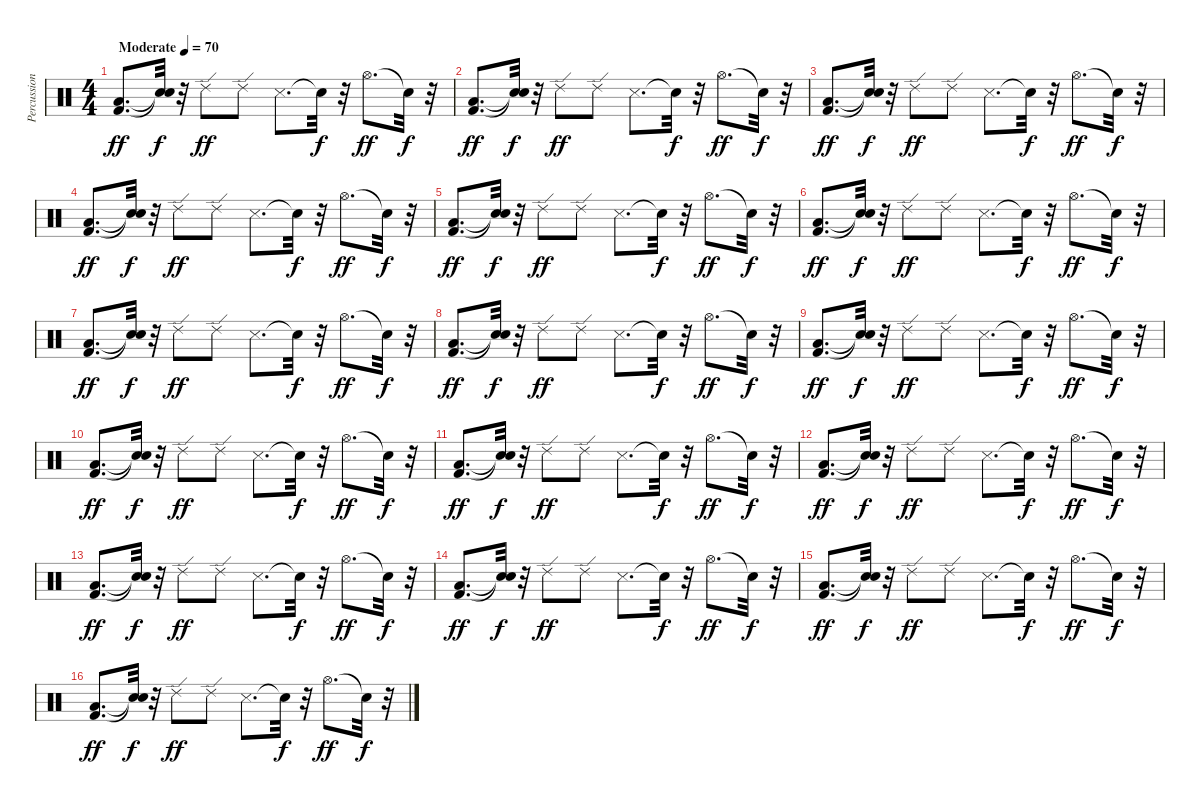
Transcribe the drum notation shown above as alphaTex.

\track ("Percussions2" "Percussion") {instrument percussion}
\staff {score}
\articulation defaults
\ts (4 4)
\tempo (70 "Moderate")
\clef neutral
\ks c
("Kick (hit) 2" "Low Floor Tom (hit)").8{d dy ff} ("Snare (hit)"{t} "Snare (hit)"{t}).32{dy f} r.32 "Ride (edge) 2".8{dy ff} "Ride (edge) 2".8 "Snare (side stick) 3".8{d} "Snare (hit)"{t}.32{dy f} r.32 "Hi-Hat (open)".8{d dy ff} "Snare (hit)"{t}.32{dy f} r.32 |
("Kick (hit) 2" "Low Floor Tom (hit)").8{d dy ff} ("Snare (hit)"{t} "Snare (hit)"{t}).32{dy f} r.32 "Ride (edge) 2".8{dy ff} "Ride (edge) 2".8 "Snare (side stick) 3".8{d} "Snare (hit)"{t}.32{dy f} r.32 "Hi-Hat (open)".8{d dy ff} "Snare (hit)"{t}.32{dy f} r.32 |
("Kick (hit) 2" "Low Floor Tom (hit)").8{d dy ff} ("Snare (hit)"{t} "Snare (hit)"{t}).32{dy f} r.32 "Ride (edge) 2".8{dy ff} "Ride (edge) 2".8 "Snare (side stick) 3".8{d} "Snare (hit)"{t}.32{dy f} r.32 "Hi-Hat (open)".8{d dy ff} "Snare (hit)"{t}.32{dy f} r.32 |
("Kick (hit) 2" "Low Floor Tom (hit)").8{d dy ff} ("Snare (hit)"{t} "Snare (hit)"{t}).32{dy f} r.32 "Ride (edge) 2".8{dy ff} "Ride (edge) 2".8 "Snare (side stick) 3".8{d} "Snare (hit)"{t}.32{dy f} r.32 "Hi-Hat (open)".8{d dy ff} "Snare (hit)"{t}.32{dy f} r.32 |
("Kick (hit) 2" "Low Floor Tom (hit)").8{d dy ff} ("Snare (hit)"{t} "Snare (hit)"{t}).32{dy f} r.32 "Ride (edge) 2".8{dy ff} "Ride (edge) 2".8 "Snare (side stick) 3".8{d} "Snare (hit)"{t}.32{dy f} r.32 "Hi-Hat (open)".8{d dy ff} "Snare (hit)"{t}.32{dy f} r.32 |
("Kick (hit) 2" "Low Floor Tom (hit)").8{d dy ff} ("Snare (hit)"{t} "Snare (hit)"{t}).32{dy f} r.32 "Ride (edge) 2".8{dy ff} "Ride (edge) 2".8 "Snare (side stick) 3".8{d} "Snare (hit)"{t}.32{dy f} r.32 "Hi-Hat (open)".8{d dy ff} "Snare (hit)"{t}.32{dy f} r.32 |
("Kick (hit) 2" "Low Floor Tom (hit)").8{d dy ff} ("Snare (hit)"{t} "Snare (hit)"{t}).32{dy f} r.32 "Ride (edge) 2".8{dy ff} "Ride (edge) 2".8 "Snare (side stick) 3".8{d} "Snare (hit)"{t}.32{dy f} r.32 "Hi-Hat (open)".8{d dy ff} "Snare (hit)"{t}.32{dy f} r.32 |
("Kick (hit) 2" "Low Floor Tom (hit)").8{d dy ff} ("Snare (hit)"{t} "Snare (hit)"{t}).32{dy f} r.32 "Ride (edge) 2".8{dy ff} "Ride (edge) 2".8 "Snare (side stick) 3".8{d} "Snare (hit)"{t}.32{dy f} r.32 "Hi-Hat (open)".8{d dy ff} "Snare (hit)"{t}.32{dy f} r.32 |
("Kick (hit) 2" "Low Floor Tom (hit)").8{d dy ff} ("Snare (hit)"{t} "Snare (hit)"{t}).32{dy f} r.32 "Ride (edge) 2".8{dy ff} "Ride (edge) 2".8 "Snare (side stick) 3".8{d} "Snare (hit)"{t}.32{dy f} r.32 "Hi-Hat (open)".8{d dy ff} "Snare (hit)"{t}.32{dy f} r.32 |
("Kick (hit) 2" "Low Floor Tom (hit)").8{d dy ff} ("Snare (hit)"{t} "Snare (hit)"{t}).32{dy f} r.32 "Ride (edge) 2".8{dy ff} "Ride (edge) 2".8 "Snare (side stick) 3".8{d} "Snare (hit)"{t}.32{dy f} r.32 "Hi-Hat (open)".8{d dy ff} "Snare (hit)"{t}.32{dy f} r.32 |
("Kick (hit) 2" "Low Floor Tom (hit)").8{d dy ff} ("Snare (hit)"{t} "Snare (hit)"{t}).32{dy f} r.32 "Ride (edge) 2".8{dy ff} "Ride (edge) 2".8 "Snare (side stick) 3".8{d} "Snare (hit)"{t}.32{dy f} r.32 "Hi-Hat (open)".8{d dy ff} "Snare (hit)"{t}.32{dy f} r.32 |
("Kick (hit) 2" "Low Floor Tom (hit)").8{d dy ff} ("Snare (hit)"{t} "Snare (hit)"{t}).32{dy f} r.32 "Ride (edge) 2".8{dy ff} "Ride (edge) 2".8 "Snare (side stick) 3".8{d} "Snare (hit)"{t}.32{dy f} r.32 "Hi-Hat (open)".8{d dy ff} "Snare (hit)"{t}.32{dy f} r.32 |
("Kick (hit) 2" "Low Floor Tom (hit)").8{d dy ff} ("Snare (hit)"{t} "Snare (hit)"{t}).32{dy f} r.32 "Ride (edge) 2".8{dy ff} "Ride (edge) 2".8 "Snare (side stick) 3".8{d} "Snare (hit)"{t}.32{dy f} r.32 "Hi-Hat (open)".8{d dy ff} "Snare (hit)"{t}.32{dy f} r.32 |
("Kick (hit) 2" "Low Floor Tom (hit)").8{d dy ff} ("Snare (hit)"{t} "Snare (hit)"{t}).32{dy f} r.32 "Ride (edge) 2".8{dy ff} "Ride (edge) 2".8 "Snare (side stick) 3".8{d} "Snare (hit)"{t}.32{dy f} r.32 "Hi-Hat (open)".8{d dy ff} "Snare (hit)"{t}.32{dy f} r.32 |
("Kick (hit) 2" "Low Floor Tom (hit)").8{d dy ff} ("Snare (hit)"{t} "Snare (hit)"{t}).32{dy f} r.32 "Ride (edge) 2".8{dy ff} "Ride (edge) 2".8 "Snare (side stick) 3".8{d} "Snare (hit)"{t}.32{dy f} r.32 "Hi-Hat (open)".8{d dy ff} "Snare (hit)"{t}.32{dy f} r.32 |
("Kick (hit) 2" "Low Floor Tom (hit)").8{d dy ff} ("Snare (hit)"{t} "Snare (hit)"{t}).32{dy f} r.32 "Ride (edge) 2".8{dy ff} "Ride (edge) 2".8 "Snare (side stick) 3".8{d} "Snare (hit)"{t}.32{dy f} r.32 "Hi-Hat (open)".8{d dy ff} "Snare (hit)"{t}.32{dy f} r.32
